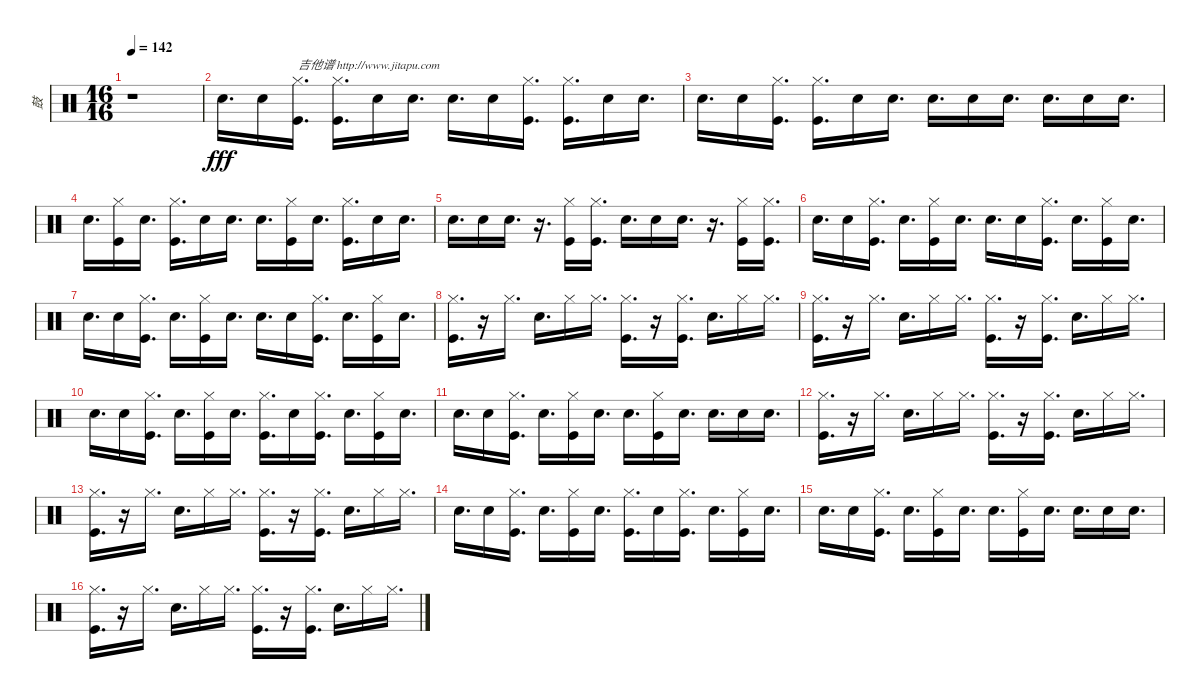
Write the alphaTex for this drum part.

\track ("鼓" "鼓") {instrument percussion}
\staff {score}
\articulation defaults
\ts (16 16)
\tempo 142
\clef neutral
\ks c
r.1{dy fff} |
"Snare (hit) 2".16{d} "Snare (hit) 2".16 ("Hi-Hat (closed)" "Kick (hit)").16{d txt "吉他谱 http://www.jitapu.com"} ("Hi-Hat (closed)" "Kick (hit)").16{d} "Snare (hit) 2".16 "Snare (hit) 2".16{d} "Snare (hit) 2".16{d} "Snare (hit) 2".16 ("Hi-Hat (closed)" "Kick (hit)").16{d} ("Hi-Hat (closed)" "Kick (hit)").16{d} "Snare (hit) 2".16 "Snare (hit) 2".16{d} |
"Snare (hit) 2".16{d} "Snare (hit) 2".16 ("Hi-Hat (closed)" "Kick (hit)").16{d} ("Hi-Hat (closed)" "Kick (hit)").16{d} "Snare (hit) 2".16 "Snare (hit) 2".16{d} "Snare (hit) 2".16{d} "Snare (hit) 2".16 "Snare (hit) 2".16{d} "Snare (hit) 2".16{d} "Snare (hit) 2".16 "Snare (hit) 2".16{d} |
"Snare (hit) 2".16{d} ("Hi-Hat (closed)" "Kick (hit)").16 "Snare (hit) 2".16{d} ("Hi-Hat (closed)" "Kick (hit)").16{d} "Snare (hit) 2".16 "Snare (hit) 2".16{d} "Snare (hit) 2".16{d} ("Hi-Hat (closed)" "Kick (hit)").16 "Snare (hit) 2".16{d} ("Hi-Hat (closed)" "Kick (hit)").16{d} "Snare (hit) 2".16 "Snare (hit) 2".16{d} |
"Snare (hit) 2".16{d} "Snare (hit) 2".16 "Snare (hit) 2".16{d} r.16{d} ("Hi-Hat (closed)" "Kick (hit)").16 ("Hi-Hat (closed)" "Kick (hit)").16{d} "Snare (hit) 2".16{d} "Snare (hit) 2".16 "Snare (hit) 2".16{d} r.16{d} ("Hi-Hat (closed)" "Kick (hit)").16 ("Hi-Hat (closed)" "Kick (hit)").16{d} |
"Snare (hit) 2".16{d} "Snare (hit) 2".16 ("Hi-Hat (closed)" "Kick (hit)").16{d} "Snare (hit) 2".16{d} ("Hi-Hat (closed)" "Kick (hit)").16 "Snare (hit) 2".16{d} "Snare (hit) 2".16{d} "Snare (hit) 2".16 ("Hi-Hat (closed)" "Kick (hit)").16{d} "Snare (hit) 2".16{d} ("Hi-Hat (closed)" "Kick (hit)").16 "Snare (hit) 2".16{d} |
"Snare (hit) 2".16{d} "Snare (hit) 2".16 ("Hi-Hat (closed)" "Kick (hit)").16{d} "Snare (hit) 2".16{d} ("Hi-Hat (closed)" "Kick (hit)").16 "Snare (hit) 2".16{d} "Snare (hit) 2".16{d} "Snare (hit) 2".16 ("Hi-Hat (closed)" "Kick (hit)").16{d} "Snare (hit) 2".16{d} ("Hi-Hat (closed)" "Kick (hit)").16 "Snare (hit) 2".16{d} |
("Hi-Hat (closed)" "Kick (hit)").16{d} r.16 "Hi-Hat (closed)".16{d} "Snare (hit) 2".16{d} "Hi-Hat (closed)".16 "Hi-Hat (closed)".16{d} ("Hi-Hat (closed)" "Kick (hit)").16{d} r.16 ("Hi-Hat (closed)" "Kick (hit)").16{d} "Snare (hit) 2".16{d} "Hi-Hat (closed)".16 "Hi-Hat (closed)".16{d} |
("Hi-Hat (closed)" "Kick (hit)").16{d} r.16 "Hi-Hat (closed)".16{d} "Snare (hit) 2".16{d} "Hi-Hat (closed)".16 "Hi-Hat (closed)".16{d} ("Hi-Hat (closed)" "Kick (hit)").16{d} r.16 ("Hi-Hat (closed)" "Kick (hit)").16{d} "Snare (hit) 2".16{d} "Hi-Hat (closed)".16 "Hi-Hat (closed)".16{d} |
"Snare (hit) 2".16{d} "Snare (hit) 2".16 ("Hi-Hat (closed)" "Kick (hit)").16{d} "Snare (hit) 2".16{d} ("Hi-Hat (closed)" "Kick (hit)").16 "Snare (hit) 2".16{d} ("Hi-Hat (closed)" "Kick (hit)").16{d} "Snare (hit) 2".16 ("Hi-Hat (closed)" "Kick (hit)").16{d} "Snare (hit) 2".16{d} ("Hi-Hat (closed)" "Kick (hit)").16 "Snare (hit) 2".16{d} |
"Snare (hit) 2".16{d} "Snare (hit) 2".16 ("Hi-Hat (closed)" "Kick (hit)").16{d} "Snare (hit) 2".16{d} ("Hi-Hat (closed)" "Kick (hit)").16 "Snare (hit) 2".16{d} "Snare (hit) 2".16{d} ("Hi-Hat (closed)" "Kick (hit)").16 "Snare (hit) 2".16{d} "Snare (hit) 2".16{d} "Snare (hit) 2".16 "Snare (hit) 2".16{d} |
("Hi-Hat (closed)" "Kick (hit)").16{d} r.16 "Hi-Hat (closed)".16{d} "Snare (hit) 2".16{d} "Hi-Hat (closed)".16 "Hi-Hat (closed)".16{d} ("Hi-Hat (closed)" "Kick (hit)").16{d} r.16 ("Hi-Hat (closed)" "Kick (hit)").16{d} "Snare (hit) 2".16{d} "Hi-Hat (closed)".16 "Hi-Hat (closed)".16{d} |
("Hi-Hat (closed)" "Kick (hit)").16{d} r.16 "Hi-Hat (closed)".16{d} "Snare (hit) 2".16{d} "Hi-Hat (closed)".16 "Hi-Hat (closed)".16{d} ("Hi-Hat (closed)" "Kick (hit)").16{d} r.16 ("Hi-Hat (closed)" "Kick (hit)").16{d} "Snare (hit) 2".16{d} "Hi-Hat (closed)".16 "Hi-Hat (closed)".16{d} |
"Snare (hit) 2".16{d} "Snare (hit) 2".16 ("Hi-Hat (closed)" "Kick (hit)").16{d} "Snare (hit) 2".16{d} ("Hi-Hat (closed)" "Kick (hit)").16 "Snare (hit) 2".16{d} ("Hi-Hat (closed)" "Kick (hit)").16{d} "Snare (hit) 2".16 ("Hi-Hat (closed)" "Kick (hit)").16{d} "Snare (hit) 2".16{d} ("Hi-Hat (closed)" "Kick (hit)").16 "Snare (hit) 2".16{d} |
"Snare (hit) 2".16{d} "Snare (hit) 2".16 ("Hi-Hat (closed)" "Kick (hit)").16{d} "Snare (hit) 2".16{d} ("Hi-Hat (closed)" "Kick (hit)").16 "Snare (hit) 2".16{d} "Snare (hit) 2".16{d} ("Hi-Hat (closed)" "Kick (hit)").16 "Snare (hit) 2".16{d} "Snare (hit) 2".16{d} "Snare (hit) 2".16 "Snare (hit) 2".16{d} |
("Hi-Hat (closed)" "Kick (hit)").16{d} r.16 "Hi-Hat (closed)".16{d} "Snare (hit) 2".16{d} "Hi-Hat (closed)".16 "Hi-Hat (closed)".16{d} ("Hi-Hat (closed)" "Kick (hit)").16{d} r.16 ("Hi-Hat (closed)" "Kick (hit)").16{d} "Snare (hit) 2".16{d} "Hi-Hat (closed)".16 "Hi-Hat (closed)".16{d}
